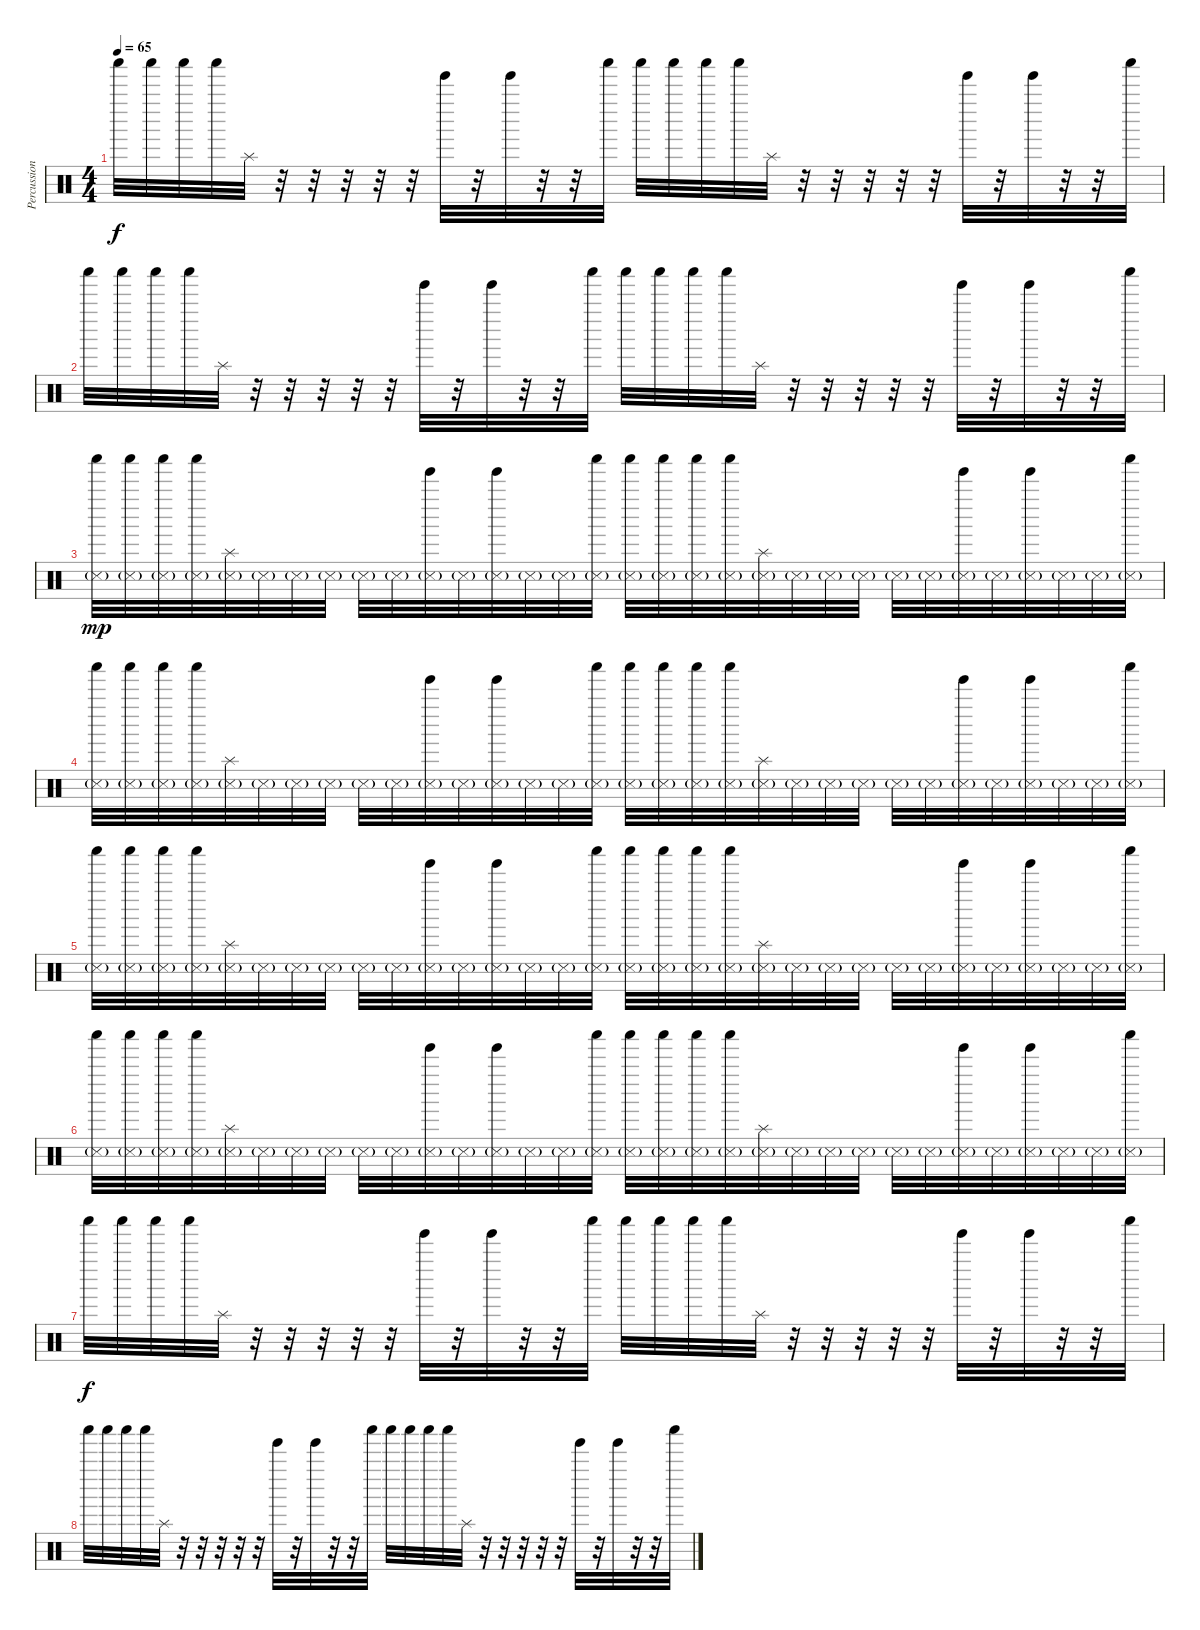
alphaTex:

\track ("Percussion 2" "Percussion") {instrument percussion}
\staff {score}
\articulation defaults
\ts (4 4)
\tempo 65
\clef neutral
\ks c "Shaker (hit)".32{dy f} "Shaker (hit)".32 "Shaker (hit)".32 "Shaker (hit)".32 "Splash (hit)".32
r.32 r.32 r.32 r.32 r.32 "Tinkle Bell (hit)".32 r.32 "Tinkle Bell (hit)".32 r.32 r.32 "Shaker (hit)".32 "Shaker (hit)".32 "Shaker (hit)".32 "Shaker (hit)".32 "Shaker (hit)".32 "Splash (hit)".32 r.32 r.32 r.32 r.32 r.32 "Tinkle Bell (hit)".32 r.32 "Tinkle Bell (hit)".32 r.32 r.32 "Shaker (hit)".32 |
"Shaker (hit)".32 "Shaker (hit)".32 "Shaker (hit)".32 "Shaker (hit)".32 "Splash (hit)".32 r.32 r.32 r.32 r.32 r.32 "Tinkle Bell (hit)".32 r.32 "Tinkle Bell (hit)".32 r.32 r.32 "Shaker (hit)".32 "Shaker (hit)".32 "Shaker (hit)".32 "Shaker (hit)".32 "Shaker (hit)".32 "Splash (hit)".32 r.32 r.32 r.32 r.32 r.32 "Tinkle Bell (hit)".32 r.32 "Tinkle Bell (hit)".32 r.32 r.32 "Shaker (hit)".32 |
\section ("" "")
("Snare (side stick) 3"{g} "Shaker (hit)").32{dy mp} ("Snare (side stick) 3"{g} "Shaker (hit)").32 ("Snare (side stick) 3"{g} "Shaker (hit)").32 ("Snare (side stick) 3"{g} "Shaker (hit)").32 ("Snare (side stick) 3"{g} "Splash (hit)").32 "Snare (side stick) 3"{g}.32 "Snare (side stick) 3"{g}.32 "Snare (side stick) 3"{g}.32 "Snare (side stick) 3"{g}.32 "Snare (side stick) 3"{g}.32 ("Tinkle Bell (hit)" "Snare (side stick) 3"{g}).32 "Snare (side stick) 3"{g}.32 ("Tinkle Bell (hit)" "Snare (side stick) 3"{g}).32 "Snare (side stick) 3"{g}.32 "Snare (side stick) 3"{g}.32 ("Snare (side stick) 3"{g} "Shaker (hit)").32 ("Snare (side stick) 3"{g} "Shaker (hit)").32 ("Snare (side stick) 3"{g} "Shaker (hit)").32 ("Snare (side stick) 3"{g} "Shaker (hit)").32 ("Snare (side stick) 3"{g} "Shaker (hit)").32 ("Snare (side stick) 3"{g} "Splash (hit)").32 "Snare (side stick) 3"{g}.32 "Snare (side stick) 3"{g}.32 "Snare (side stick) 3"{g}.32 "Snare (side stick) 3"{g}.32 "Snare (side stick) 3"{g}.32 ("Tinkle Bell (hit)" "Snare (side stick) 3"{g}).32 "Snare (side stick) 3"{g}.32 ("Tinkle Bell (hit)" "Snare (side stick) 3"{g}).32 "Snare (side stick) 3"{g}.32 "Snare (side stick) 3"{g}.32 ("Snare (side stick) 3"{g} "Shaker (hit)").32 |
("Snare (side stick) 3"{g} "Shaker (hit)").32 ("Snare (side stick) 3"{g} "Shaker (hit)").32 ("Snare (side stick) 3"{g} "Shaker (hit)").32 ("Snare (side stick) 3"{g} "Shaker (hit)").32 ("Snare (side stick) 3"{g} "Splash (hit)").32 "Snare (side stick) 3"{g}.32 "Snare (side stick) 3"{g}.32 "Snare (side stick) 3"{g}.32 "Snare (side stick) 3"{g}.32 "Snare (side stick) 3"{g}.32 ("Tinkle Bell (hit)" "Snare (side stick) 3"{g}).32 "Snare (side stick) 3"{g}.32 ("Tinkle Bell (hit)" "Snare (side stick) 3"{g}).32 "Snare (side stick) 3"{g}.32 "Snare (side stick) 3"{g}.32 ("Snare (side stick) 3"{g} "Shaker (hit)").32 ("Snare (side stick) 3"{g} "Shaker (hit)").32 ("Snare (side stick) 3"{g} "Shaker (hit)").32 ("Snare (side stick) 3"{g} "Shaker (hit)").32 ("Snare (side stick) 3"{g} "Shaker (hit)").32 ("Snare (side stick) 3"{g} "Splash (hit)").32 "Snare (side stick) 3"{g}.32 "Snare (side stick) 3"{g}.32 "Snare (side stick) 3"{g}.32 "Snare (side stick) 3"{g}.32 "Snare (side stick) 3"{g}.32 ("Tinkle Bell (hit)" "Snare (side stick) 3"{g}).32 "Snare (side stick) 3"{g}.32 ("Tinkle Bell (hit)" "Snare (side stick) 3"{g}).32 "Snare (side stick) 3"{g}.32 "Snare (side stick) 3"{g}.32 ("Snare (side stick) 3"{g} "Shaker (hit)").32 |
("Snare (side stick) 3"{g} "Shaker (hit)").32 ("Snare (side stick) 3"{g} "Shaker (hit)").32 ("Snare (side stick) 3"{g} "Shaker (hit)").32 ("Snare (side stick) 3"{g} "Shaker (hit)").32 ("Snare (side stick) 3"{g} "Splash (hit)").32 "Snare (side stick) 3"{g}.32 "Snare (side stick) 3"{g}.32 "Snare (side stick) 3"{g}.32 "Snare (side stick) 3"{g}.32 "Snare (side stick) 3"{g}.32 ("Tinkle Bell (hit)" "Snare (side stick) 3"{g}).32 "Snare (side stick) 3"{g}.32 ("Tinkle Bell (hit)" "Snare (side stick) 3"{g}).32 "Snare (side stick) 3"{g}.32 "Snare (side stick) 3"{g}.32 ("Snare (side stick) 3"{g} "Shaker (hit)").32 ("Snare (side stick) 3"{g} "Shaker (hit)").32 ("Snare (side stick) 3"{g} "Shaker (hit)").32 ("Snare (side stick) 3"{g} "Shaker (hit)").32 ("Snare (side stick) 3"{g} "Shaker (hit)").32 ("Snare (side stick) 3"{g} "Splash (hit)").32 "Snare (side stick) 3"{g}.32 "Snare (side stick) 3"{g}.32 "Snare (side stick) 3"{g}.32 "Snare (side stick) 3"{g}.32 "Snare (side stick) 3"{g}.32 ("Tinkle Bell (hit)" "Snare (side stick) 3"{g}).32 "Snare (side stick) 3"{g}.32 ("Tinkle Bell (hit)" "Snare (side stick) 3"{g}).32 "Snare (side stick) 3"{g}.32 "Snare (side stick) 3"{g}.32 ("Snare (side stick) 3"{g} "Shaker (hit)").32 |
("Snare (side stick) 3"{g} "Shaker (hit)").32 ("Snare (side stick) 3"{g} "Shaker (hit)").32 ("Snare (side stick) 3"{g} "Shaker (hit)").32 ("Snare (side stick) 3"{g} "Shaker (hit)").32 ("Snare (side stick) 3"{g} "Splash (hit)").32 "Snare (side stick) 3"{g}.32 "Snare (side stick) 3"{g}.32 "Snare (side stick) 3"{g}.32 "Snare (side stick) 3"{g}.32 "Snare (side stick) 3"{g}.32 ("Tinkle Bell (hit)" "Snare (side stick) 3"{g}).32 "Snare (side stick) 3"{g}.32 ("Tinkle Bell (hit)" "Snare (side stick) 3"{g}).32 "Snare (side stick) 3"{g}.32 "Snare (side stick) 3"{g}.32 ("Snare (side stick) 3"{g} "Shaker (hit)").32 ("Snare (side stick) 3"{g} "Shaker (hit)").32 ("Snare (side stick) 3"{g} "Shaker (hit)").32 ("Snare (side stick) 3"{g} "Shaker (hit)").32 ("Snare (side stick) 3"{g} "Shaker (hit)").32 ("Snare (side stick) 3"{g} "Splash (hit)").32 "Snare (side stick) 3"{g}.32 "Snare (side stick) 3"{g}.32 "Snare (side stick) 3"{g}.32 "Snare (side stick) 3"{g}.32 "Snare (side stick) 3"{g}.32 ("Tinkle Bell (hit)" "Snare (side stick) 3"{g}).32 "Snare (side stick) 3"{g}.32 ("Tinkle Bell (hit)" "Snare (side stick) 3"{g}).32 "Snare (side stick) 3"{g}.32 "Snare (side stick) 3"{g}.32 ("Snare (side stick) 3"{g} "Shaker (hit)").32 |
\section ("" "")
"Shaker (hit)".32{dy f} "Shaker (hit)".32 "Shaker (hit)".32 "Shaker (hit)".32 "Splash (hit)".32 r.32 r.32 r.32 r.32 r.32 "Tinkle Bell (hit)".32 r.32 "Tinkle Bell (hit)".32 r.32 r.32 "Shaker (hit)".32 "Shaker (hit)".32 "Shaker (hit)".32 "Shaker (hit)".32 "Shaker (hit)".32 "Splash (hit)".32 r.32 r.32 r.32 r.32 r.32 "Tinkle Bell (hit)".32 r.32 "Tinkle Bell (hit)".32 r.32 r.32 "Shaker (hit)".32 |
"Shaker (hit)".32 "Shaker (hit)".32 "Shaker (hit)".32 "Shaker (hit)".32 "Splash (hit)".32 r.32 r.32 r.32 r.32 r.32 "Tinkle Bell (hit)".32 r.32 "Tinkle Bell (hit)".32 r.32 r.32 "Shaker (hit)".32 "Shaker (hit)".32 "Shaker (hit)".32 "Shaker (hit)".32 "Shaker (hit)".32 "Splash (hit)".32 r.32 r.32 r.32 r.32 r.32 "Tinkle Bell (hit)".32 r.32 "Tinkle Bell (hit)".32 r.32 r.32 "Shaker (hit)".32
